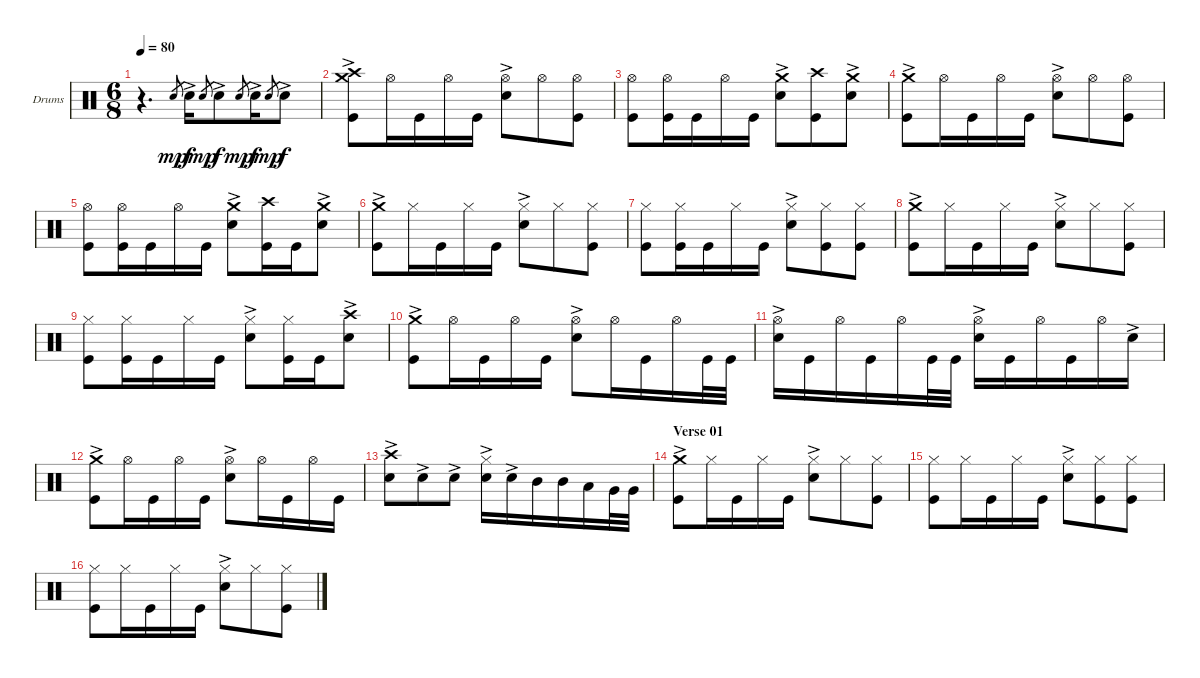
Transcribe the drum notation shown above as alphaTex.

\defaultSystemsLayout 4
\bracketExtendMode groupsimilarinstruments
\firstSystemTrackNameOrientation horizontal
\otherSystemsTrackNameOrientation horizontal
\track ("Drumkit" "Drums") {instrument percussion}
\staff {score}
\articulation defaults
\ts (6 8)
\tempo 80
\clef neutral
\scale
0.474178
\ks c
r.4{d dy mp} "Snare (hit) 2".8{gr} "Snare (hit) 2"{ac}.16{dy f} "Snare (hit) 2".8{gr dy mp} "Snare (hit) 2"{ac}.8{dy f} "Snare (hit) 2".8{gr dy mp} "Snare (hit) 2"{ac}.16{dy f} "Snare (hit) 2".8{gr dy mp} "Snare (hit) 2"{ac}.8{dy f} |
\scale
0.262911 ("Crash medium (hit)"{ac} "Crash high (hit)" "Kick (hit)").8 "Hi-Hat (open)".16 "Kick (hit)".16 "Hi-Hat (open)".16 "Kick (hit)".16 ("Hi-Hat (open)" "Snare (hit) 2"{ac}).8 "Hi-Hat (open)".8 ("Hi-Hat (open)" "Kick (hit)").8 |
\scale
0.262911 ("Hi-Hat (open)" "Kick (hit)").8 ("Hi-Hat (open)" "Kick (hit)").16 "Kick (hit)".16 "Hi-Hat (open)".16 "Kick (hit)".16 ("Crash medium (hit)"{ac} "Snare (hit) 2"{ac}).8 ("Crash high (hit)" "Kick (hit)").8 ("Crash medium (hit)"{ac} "Snare (hit) 2"{ac}).8 |
\scale
0.333333 ("Crash medium (hit)"{ac} "Kick (hit)").8 "Hi-Hat (open)".16 "Kick (hit)".16 "Hi-Hat (open)".16 "Kick (hit)".16 ("Hi-Hat (open)" "Snare (hit) 2"{ac}).8 "Hi-Hat (open)".8 ("Hi-Hat (open)" "Kick (hit)").8 |
\scale
0.307582 ("Hi-Hat (open)" "Kick (hit)").8 ("Hi-Hat (open)" "Kick (hit)").16 "Kick (hit)".16 "Hi-Hat (open)".16 "Kick (hit)".16 ("Crash medium (hit)"{ac} "Snare (hit) 2"{ac}).8 ("Crash high (hit)" "Kick (hit)").16 "Kick (hit)".16 ("Crash medium (hit)"{ac} "Snare (hit) 2"{ac}).8 |
\scale
0.358865 ("Crash medium (hit)"{ac} "Kick (hit)").8 "Hi-Hat (closed)".16 "Kick (hit)".16 "Hi-Hat (closed)".16 "Kick (hit)".16 ("Hi-Hat (closed)" "Snare (hit) 2"{ac}).8 "Hi-Hat (closed)".8 ("Hi-Hat (closed)" "Kick (hit)").8 |
\scale
0.333333 ("Hi-Hat (closed)" "Kick (hit)").8 ("Hi-Hat (closed)" "Kick (hit)").16 "Kick (hit)".16 "Hi-Hat (closed)".16 "Kick (hit)".16 ("Hi-Hat (closed)" "Snare (hit) 2"{ac}).8 ("Hi-Hat (closed)" "Kick (hit)").8 ("Hi-Hat (closed)" "Kick (hit)").8 |
\scale
0.333333 ("Crash medium (hit)"{ac} "Kick (hit)").8 "Hi-Hat (closed)".16 "Kick (hit)".16 "Hi-Hat (closed)".16 "Kick (hit)".16 ("Hi-Hat (closed)" "Snare (hit) 2"{ac}).8 "Hi-Hat (closed)".8 ("Hi-Hat (closed)" "Kick (hit)").8 |
\scale
0.333333 ("Hi-Hat (closed)" "Kick (hit)").8 ("Hi-Hat (closed)" "Kick (hit)").16 "Kick (hit)".16 "Hi-Hat (closed)".16 "Kick (hit)".16 ("Hi-Hat (closed)" "Snare (hit) 2"{ac}).8 ("Hi-Hat (closed)" "Kick (hit)").16 "Kick (hit)".16 ("Snare (hit) 2"{ac} "Crash high (hit)").8 |
\scale
0.333333 ("Crash medium (hit)"{ac} "Kick (hit)").8 "Hi-Hat (open)".16 "Kick (hit)".16 "Hi-Hat (open)".16 "Kick (hit)".16 ("Hi-Hat (open)" "Snare (hit) 2"{ac}).8 "Hi-Hat (open)".16 "Kick (hit)".16 "Hi-Hat (open)".16 "Kick (hit)".32 "Kick (hit)".32 |
\scale
0.333333 ("Hi-Hat (open)" "Snare (hit) 2"{ac}).16 "Kick (hit)".16 "Hi-Hat (open)".16 "Kick (hit)".16 "Hi-Hat (open)".16 "Kick (hit)".32 "Kick (hit)".32 ("Hi-Hat (open)" "Snare (hit) 2"{ac}).16 "Kick (hit)".16 "Hi-Hat (open)".16 "Kick (hit)".16 "Hi-Hat (open)".16 "Snare (hit) 2"{ac}.16 |
\scale
0.333333 ("Crash medium (hit)"{ac} "Kick (hit)").8 "Hi-Hat (open)".16 "Kick (hit)".16 "Hi-Hat (open)".16 "Kick (hit)".16 ("Hi-Hat (open)" "Snare (hit) 2"{ac}).8 "Hi-Hat (open)".16 "Kick (hit)".16 "Hi-Hat (open)".16 "Kick (hit)".16 |
\scale
0.333333 ("Snare (hit) 2"{ac} "Crash high (hit)").8 "Snare (hit) 2"{ac}.8 "Snare (hit) 2"{ac}.8 ("Snare (hit) 2"{ac} "Hi-Hat (closed)").16 "Snare (hit) 2"{ac}.16 "Mid Tom (hit)".16 "Mid Tom (hit)".16 "Low Tom (hit)".16 "Very Low Tom (hit)".32 "Very Low Tom (hit)".32 |
\section ("" "Verse 01")
\scale
0.333333 ("Crash medium (hit)"{ac} "Kick (hit)").8 "Hi-Hat (closed)".16 "Kick (hit)".16 "Hi-Hat (closed)".16 "Kick (hit)".16 ("Hi-Hat (closed)" "Snare (hit) 2"{ac}).8 "Hi-Hat (closed)".8 ("Hi-Hat (closed)" "Kick (hit)").8 |
\scale
0.333333 ("Hi-Hat (closed)" "Kick (hit)").8 "Hi-Hat (closed)".16 "Kick (hit)".16 "Hi-Hat (closed)".16 "Kick (hit)".16 ("Hi-Hat (closed)" "Snare (hit) 2"{ac}).8 ("Hi-Hat (closed)" "Kick (hit)").8 ("Hi-Hat (closed)" "Kick (hit)").8 |
\scale
0.333333 ("Kick (hit)" "Hi-Hat (closed)").8 "Hi-Hat (closed)".16 "Kick (hit)".16 "Hi-Hat (closed)".16 "Kick (hit)".16 ("Hi-Hat (closed)" "Snare (hit) 2"{ac}).8 "Hi-Hat (closed)".8 ("Hi-Hat (closed)" "Kick (hit)").8
